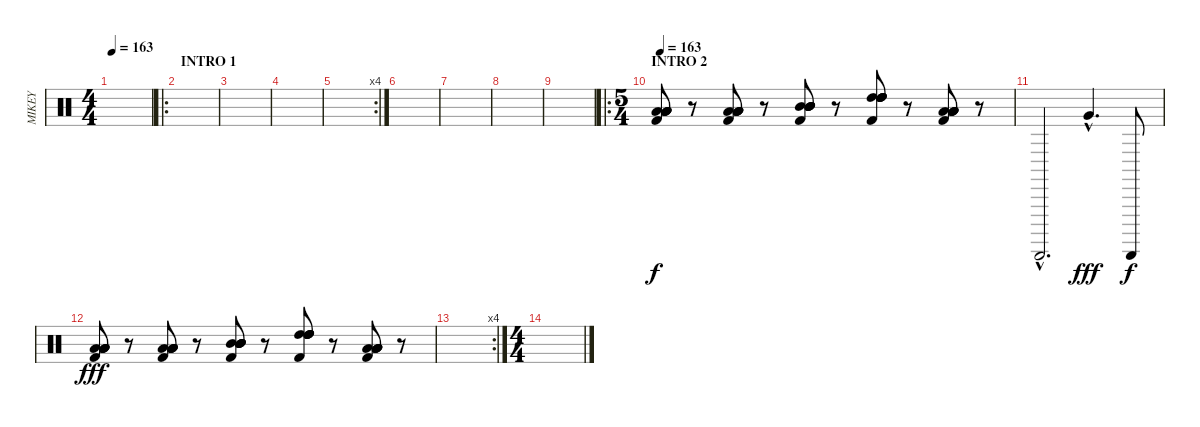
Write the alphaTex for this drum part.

\track ("MIKEY" "MIKEY") {instrument percussion}
\staff {score}
\articulation defaults
\ts (4 4)
\tempo 163
\tempo 90
\tempo 163
\clef neutral
\ks c
|
\ro
\section ("" "INTRO 1")
|
|
|
\rc 4
|
|
|
|
|
\ro
\ts (5 4)
\section ("" "INTRO 2")
\tempo 163
("Low Tom (hit)" "Low Tom (hit)" "Low Tom (hit)" "Low Tom (hit)" "Kick (hit) 2" "Low Tom (hit)").8 r.8 ("Low Tom (hit)" "Low Tom (hit)" "Low Tom (hit)" "Low Tom (hit)" "Kick (hit) 2" "Low Tom (hit)").8 r.8 ("Mid Tom (hit)" "Mid Tom (hit)" "Mid Tom (hit)" "Kick (hit) 2" "Mid Tom (hit)" "Mid Tom (hit)").8 r.8 ("High Tom (hit)" "High Tom (hit)" "High Tom (hit)" "Kick (hit) 2" "High Tom (hit)" "High Tom (hit)").8 r.8 ("Low Tom (hit)" "Low Tom (hit)" "Low Tom (hit)" "Low Tom (hit)" "Kick (hit) 2" "Low Tom (hit)").8 r.8 |
"Guiro (scrap-return)"{hac}.2{d dy f} "Very Low Tom (hit)"{hac}.4{d dy fff} "Guiro (scrap-return)".8{dy f} |
("Low Tom (hit)" "Low Tom (hit)" "Low Tom (hit)" "Low Tom (hit)" "Kick (hit) 2" "Low Tom (hit)").8{dy fff} r.8 ("Low Tom (hit)" "Low Tom (hit)" "Low Tom (hit)" "Low Tom (hit)" "Kick (hit) 2" "Low Tom (hit)").8 r.8 ("Mid Tom (hit)" "Mid Tom (hit)" "Mid Tom (hit)" "Kick (hit) 2" "Mid Tom (hit)" "Mid Tom (hit)").8 r.8 ("High Tom (hit)" "High Tom (hit)" "High Tom (hit)" "Kick (hit) 2" "High Tom (hit)" "High Tom (hit)").8 r.8 ("Low Tom (hit)" "Low Tom (hit)" "Low Tom (hit)" "Low Tom (hit)" "Kick (hit) 2" "Low Tom (hit)").8 r.8 |
\rc 4
|
\ts (4 4)
